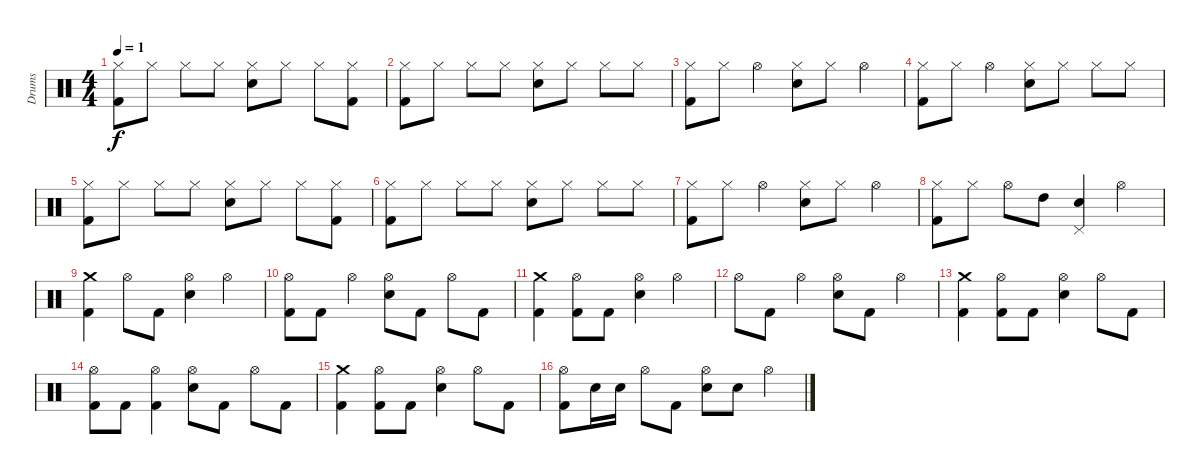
\track ("Drums" "Drums") {instrument percussion}
\staff {score}
\articulation defaults
\ts (4 4)
\tempo 1
\clef neutral
\ks c
("Kick (hit) 2" "Hi-Hat (closed)").8{dy f} "Hi-Hat (closed)".8 "Hi-Hat (closed)".8 "Hi-Hat (closed)".8 ("Hi-Hat (closed)" "Snare (hit) 2").8 "Hi-Hat (closed)".8 "Hi-Hat (closed)".8 ("Hi-Hat (closed)" "Kick (hit) 2").8 |
("Hi-Hat (closed)" "Kick (hit) 2").8 "Hi-Hat (closed)".8 "Hi-Hat (closed)".8 "Hi-Hat (closed)".8 ("Hi-Hat (closed)" "Snare (hit) 2").8 "Hi-Hat (closed)".8 "Hi-Hat (closed)".8 "Hi-Hat (closed)".8 |
("Kick (hit) 2" "Hi-Hat (closed)").8 "Hi-Hat (closed)".8 "Hi-Hat (open)".4 ("Snare (hit) 2" "Hi-Hat (closed)").8 "Hi-Hat (closed)".8 "Hi-Hat (open)".4 |
("Kick (hit) 2" "Hi-Hat (closed)").8 "Hi-Hat (closed)".8 "Hi-Hat (open)".4 ("Snare (hit) 2" "Hi-Hat (closed)").8 "Hi-Hat (closed)".8 "Hi-Hat (closed)".8 "Hi-Hat (closed)".8 |
("Kick (hit) 2" "Hi-Hat (closed)").8 "Hi-Hat (closed)".8 "Hi-Hat (closed)".8 "Hi-Hat (closed)".8 ("Hi-Hat (closed)" "Snare (hit) 2").8 "Hi-Hat (closed)".8 "Hi-Hat (closed)".8 ("Hi-Hat (closed)" "Kick (hit) 2").8 |
("Hi-Hat (closed)" "Kick (hit) 2").8 "Hi-Hat (closed)".8 "Hi-Hat (closed)".8 "Hi-Hat (closed)".8 ("Hi-Hat (closed)" "Snare (hit) 2").8 "Hi-Hat (closed)".8 "Hi-Hat (closed)".8 "Hi-Hat (closed)".8 |
("Kick (hit) 2" "Hi-Hat (closed)").8 "Hi-Hat (closed)".8 "Hi-Hat (open)".4 ("Snare (hit) 2" "Hi-Hat (closed)").8 "Hi-Hat (closed)".8 "Hi-Hat (open)".4 |
("Kick (hit) 2" "Hi-Hat (closed)").8 "Hi-Hat (closed)".8 "Hi-Hat (open)".8 "High Tom (hit)".8 ("Snare (hit) 2" "Pedal Hi-Hat (hit)").4 "Hi-Hat (open)".4 |
("Kick (hit) 2" "Crash medium (hit)").4 "Hi-Hat (open)".8 "Kick (hit) 2".8 ("Snare (hit) 2" "Hi-Hat (open)").4 "Hi-Hat (open)".4 |
("Kick (hit) 2" "Hi-Hat (open)").8 "Kick (hit) 2".8 "Hi-Hat (open)".4 ("Snare (hit) 2" "Hi-Hat (open)").8 "Kick (hit) 2".8 "Hi-Hat (open)".8 "Kick (hit) 2".8 |
("Kick (hit) 2" "Crash medium (hit)").4 ("Hi-Hat (open)" "Kick (hit) 2").8 "Kick (hit) 2".8 ("Snare (hit) 2" "Hi-Hat (open)").4 "Hi-Hat (open)".4 |
"Hi-Hat (open)".8 "Kick (hit) 2".8 "Hi-Hat (open)".4 ("Snare (hit) 2" "Hi-Hat (open)").8 "Kick (hit) 2".8 "Hi-Hat (open)".4 |
("Kick (hit) 2" "Crash medium (hit)").4 ("Hi-Hat (open)" "Kick (hit) 2").8 "Kick (hit) 2".8 ("Snare (hit) 2" "Hi-Hat (open)").4 "Hi-Hat (open)".8 "Kick (hit) 2".8 |
("Kick (hit) 2" "Hi-Hat (open)").8 "Kick (hit) 2".8 ("Hi-Hat (open)" "Kick (hit) 2").4 ("Snare (hit) 2" "Hi-Hat (open)").8 "Kick (hit) 2".8 "Hi-Hat (open)".8 "Kick (hit) 2".8 |
("Kick (hit) 2" "Crash medium (hit)").4 ("Hi-Hat (open)" "Kick (hit) 2").8 "Kick (hit) 2".8 ("Snare (hit) 2" "Hi-Hat (open)").4 "Hi-Hat (open)".8 "Kick (hit) 2".8 |
("Hi-Hat (open)" "Kick (hit) 2").8 "Snare (hit) 2".16 "Snare (hit) 2".16 "Hi-Hat (open)".8 "Kick (hit) 2".8 ("Snare (hit) 2" "Hi-Hat (open)").8 "Snare (hit) 2".8 "Hi-Hat (open)".4
